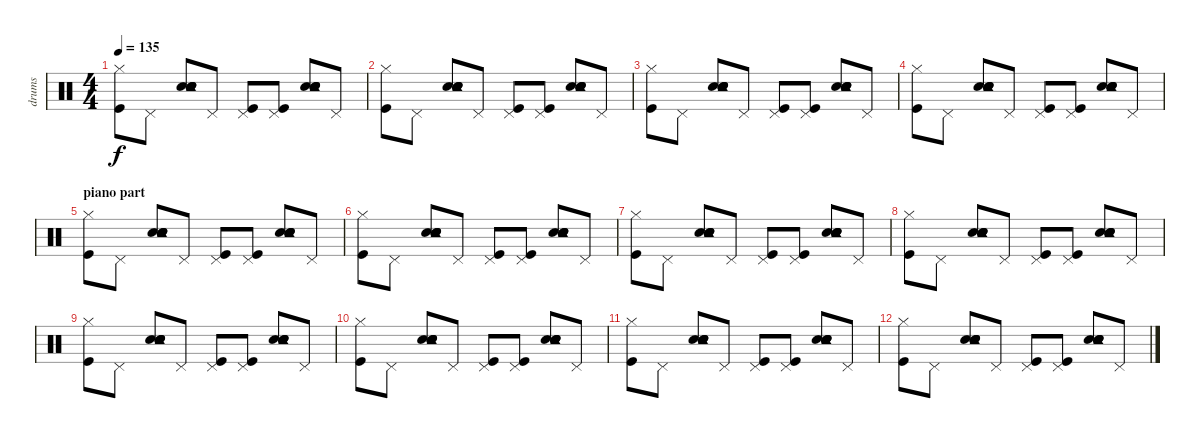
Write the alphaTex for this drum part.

\track ("drums" "drums") {instrument percussion}
\staff {score}
\articulation defaults
\ts (4 4)
\tempo 135
\clef neutral
\ks c
("Kick (hit)" "Hi-Hat (closed)").8{dy f} "Pedal Hi-Hat (hit)".8 ("Snare (hit) 2" "Snare (hit) 2" "Electric Snare (hit)" "Electric Snare (hit)" "Tambourine (hit)").8 "Pedal Hi-Hat (hit)".8 ("Kick (hit)" "Pedal Hi-Hat (hit)").8 ("Kick (hit)" "Pedal Hi-Hat (hit)").8 ("Snare (hit) 2" "Snare (hit) 2" "Electric Snare (hit)" "Electric Snare (hit)" "Tambourine (hit)").8 "Pedal Hi-Hat (hit)".8 |
("Kick (hit)" "Hi-Hat (closed)").8 "Pedal Hi-Hat (hit)".8 ("Snare (hit) 2" "Snare (hit) 2" "Electric Snare (hit)" "Electric Snare (hit)" "Tambourine (hit)").8 "Pedal Hi-Hat (hit)".8 ("Kick (hit)" "Pedal Hi-Hat (hit)").8 ("Kick (hit)" "Pedal Hi-Hat (hit)").8 ("Snare (hit) 2" "Snare (hit) 2" "Electric Snare (hit)" "Electric Snare (hit)" "Tambourine (hit)").8 "Pedal Hi-Hat (hit)".8 |
("Kick (hit)" "Hi-Hat (closed)").8 "Pedal Hi-Hat (hit)".8 ("Snare (hit) 2" "Snare (hit) 2" "Electric Snare (hit)" "Electric Snare (hit)" "Tambourine (hit)").8 "Pedal Hi-Hat (hit)".8 ("Kick (hit)" "Pedal Hi-Hat (hit)").8 ("Kick (hit)" "Pedal Hi-Hat (hit)").8 ("Snare (hit) 2" "Snare (hit) 2" "Electric Snare (hit)" "Electric Snare (hit)" "Tambourine (hit)").8 "Pedal Hi-Hat (hit)".8 |
("Kick (hit)" "Hi-Hat (closed)").8 "Pedal Hi-Hat (hit)".8 ("Snare (hit) 2" "Snare (hit) 2" "Electric Snare (hit)" "Electric Snare (hit)" "Tambourine (hit)").8 "Pedal Hi-Hat (hit)".8 ("Kick (hit)" "Pedal Hi-Hat (hit)").8 ("Kick (hit)" "Pedal Hi-Hat (hit)").8 ("Snare (hit) 2" "Snare (hit) 2" "Electric Snare (hit)" "Electric Snare (hit)" "Tambourine (hit)").8 "Pedal Hi-Hat (hit)".8 |
\section ("" "piano part ")
("Kick (hit)" "Hi-Hat (closed)").8 "Pedal Hi-Hat (hit)".8 ("Snare (hit) 2" "Snare (hit) 2" "Electric Snare (hit)" "Electric Snare (hit)" "Tambourine (hit)").8 "Pedal Hi-Hat (hit)".8 ("Kick (hit)" "Pedal Hi-Hat (hit)").8 ("Kick (hit)" "Pedal Hi-Hat (hit)").8 ("Snare (hit) 2" "Snare (hit) 2" "Electric Snare (hit)" "Electric Snare (hit)" "Tambourine (hit)").8 "Pedal Hi-Hat (hit)".8 |
("Kick (hit)" "Hi-Hat (closed)").8 "Pedal Hi-Hat (hit)".8 ("Snare (hit) 2" "Snare (hit) 2" "Electric Snare (hit)" "Electric Snare (hit)" "Tambourine (hit)").8 "Pedal Hi-Hat (hit)".8 ("Kick (hit)" "Pedal Hi-Hat (hit)").8 ("Kick (hit)" "Pedal Hi-Hat (hit)").8 ("Snare (hit) 2" "Snare (hit) 2" "Electric Snare (hit)" "Electric Snare (hit)" "Tambourine (hit)").8 "Pedal Hi-Hat (hit)".8 |
("Kick (hit)" "Hi-Hat (closed)").8 "Pedal Hi-Hat (hit)".8 ("Snare (hit) 2" "Snare (hit) 2" "Electric Snare (hit)" "Electric Snare (hit)" "Tambourine (hit)").8 "Pedal Hi-Hat (hit)".8 ("Kick (hit)" "Pedal Hi-Hat (hit)").8 ("Kick (hit)" "Pedal Hi-Hat (hit)").8 ("Snare (hit) 2" "Snare (hit) 2" "Electric Snare (hit)" "Electric Snare (hit)" "Tambourine (hit)").8 "Pedal Hi-Hat (hit)".8 |
("Kick (hit)" "Hi-Hat (closed)").8 "Pedal Hi-Hat (hit)".8 ("Snare (hit) 2" "Snare (hit) 2" "Electric Snare (hit)" "Electric Snare (hit)" "Tambourine (hit)").8 "Pedal Hi-Hat (hit)".8 ("Kick (hit)" "Pedal Hi-Hat (hit)").8 ("Kick (hit)" "Pedal Hi-Hat (hit)").8 ("Snare (hit) 2" "Snare (hit) 2" "Electric Snare (hit)" "Electric Snare (hit)" "Tambourine (hit)").8 "Pedal Hi-Hat (hit)".8 |
("Kick (hit)" "Hi-Hat (closed)").8 "Pedal Hi-Hat (hit)".8 ("Snare (hit) 2" "Snare (hit) 2" "Electric Snare (hit)" "Electric Snare (hit)" "Tambourine (hit)").8 "Pedal Hi-Hat (hit)".8 ("Kick (hit)" "Pedal Hi-Hat (hit)").8 ("Kick (hit)" "Pedal Hi-Hat (hit)").8 ("Snare (hit) 2" "Snare (hit) 2" "Electric Snare (hit)" "Electric Snare (hit)" "Tambourine (hit)").8 "Pedal Hi-Hat (hit)".8 |
("Kick (hit)" "Hi-Hat (closed)").8 "Pedal Hi-Hat (hit)".8 ("Snare (hit) 2" "Snare (hit) 2" "Electric Snare (hit)" "Electric Snare (hit)" "Tambourine (hit)").8 "Pedal Hi-Hat (hit)".8 ("Kick (hit)" "Pedal Hi-Hat (hit)").8 ("Kick (hit)" "Pedal Hi-Hat (hit)").8 ("Snare (hit) 2" "Snare (hit) 2" "Electric Snare (hit)" "Electric Snare (hit)" "Tambourine (hit)").8 "Pedal Hi-Hat (hit)".8 |
("Kick (hit)" "Hi-Hat (closed)").8 "Pedal Hi-Hat (hit)".8 ("Snare (hit) 2" "Snare (hit) 2" "Electric Snare (hit)" "Electric Snare (hit)" "Tambourine (hit)").8 "Pedal Hi-Hat (hit)".8 ("Kick (hit)" "Pedal Hi-Hat (hit)").8 ("Kick (hit)" "Pedal Hi-Hat (hit)").8 ("Snare (hit) 2" "Snare (hit) 2" "Electric Snare (hit)" "Electric Snare (hit)" "Tambourine (hit)").8 "Pedal Hi-Hat (hit)".8 |
("Kick (hit)" "Hi-Hat (closed)").8 "Pedal Hi-Hat (hit)".8 ("Snare (hit) 2" "Snare (hit) 2" "Electric Snare (hit)" "Electric Snare (hit)" "Tambourine (hit)").8 "Pedal Hi-Hat (hit)".8 ("Kick (hit)" "Pedal Hi-Hat (hit)").8 ("Kick (hit)" "Pedal Hi-Hat (hit)").8 ("Snare (hit) 2" "Snare (hit) 2" "Electric Snare (hit)" "Electric Snare (hit)" "Tambourine (hit)").8 "Pedal Hi-Hat (hit)".8
